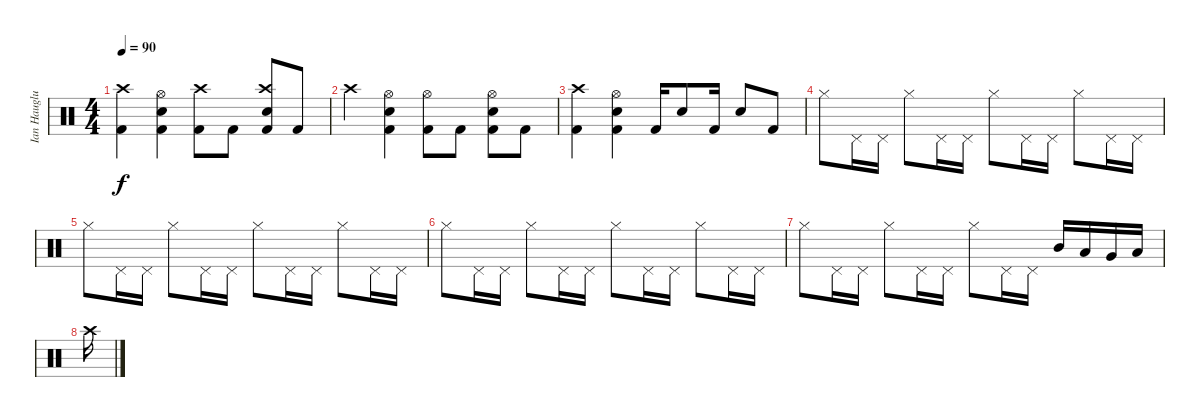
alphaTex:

\track ("Ian Hauglund" "Ian Hauglu") {instrument percussion}
\staff {score}
\articulation defaults
\ts (4 4)
\tempo 90
\clef neutral
\ks c
("Kick (hit) 2" "Crash high (hit)").4{dy f} ("Kick (hit) 2" "Electric Snare (hit)" "Hi-Hat (open)").4 ("Kick (hit) 2" "Crash high (hit)").8 "Kick (hit) 2".8 ("Kick (hit) 2" "Electric Snare (hit)" "Crash high (hit)").8 "Kick (hit) 2".8 |
"Crash high (hit)".4 ("Kick (hit) 2" "Electric Snare (hit)" "Hi-Hat (open)").4 ("Kick (hit) 2" "Hi-Hat (open)").8 "Kick (hit) 2".8 ("Kick (hit) 2" "Hi-Hat (open)" "Electric Snare (hit)").8 "Kick (hit) 2".8 |
("Kick (hit) 2" "Crash high (hit)").4 ("Kick (hit) 2" "Electric Snare (hit)" "Hi-Hat (open)").4 "Kick (hit) 2".16 "Electric Snare (hit)".8 "Kick (hit) 2".16 "Electric Snare (hit)".8 "Kick (hit) 2".8 |
"Hi-Hat (closed)".8 "Pedal Hi-Hat (hit)".16 "Pedal Hi-Hat (hit)".16 "Hi-Hat (closed)".8 "Pedal Hi-Hat (hit)".16 "Pedal Hi-Hat (hit)".16 "Hi-Hat (closed)".8 "Pedal Hi-Hat (hit)".16 "Pedal Hi-Hat (hit)".16 "Hi-Hat (closed)".8 "Pedal Hi-Hat (hit)".16 "Pedal Hi-Hat (hit)".16 |
"Hi-Hat (closed)".8 "Pedal Hi-Hat (hit)".16 "Pedal Hi-Hat (hit)".16 "Hi-Hat (closed)".8 "Pedal Hi-Hat (hit)".16 "Pedal Hi-Hat (hit)".16 "Hi-Hat (closed)".8 "Pedal Hi-Hat (hit)".16 "Pedal Hi-Hat (hit)".16 "Hi-Hat (closed)".8 "Pedal Hi-Hat (hit)".16 "Pedal Hi-Hat (hit)".16 |
"Hi-Hat (closed)".8 "Pedal Hi-Hat (hit)".16 "Pedal Hi-Hat (hit)".16 "Hi-Hat (closed)".8 "Pedal Hi-Hat (hit)".16 "Pedal Hi-Hat (hit)".16 "Hi-Hat (closed)".8 "Pedal Hi-Hat (hit)".16 "Pedal Hi-Hat (hit)".16 "Hi-Hat (closed)".8 "Pedal Hi-Hat (hit)".16 "Pedal Hi-Hat (hit)".16 |
"Hi-Hat (closed)".8 "Pedal Hi-Hat (hit)".16 "Pedal Hi-Hat (hit)".16 "Hi-Hat (closed)".8 "Pedal Hi-Hat (hit)".16 "Pedal Hi-Hat (hit)".16 "Hi-Hat (closed)".8 "Pedal Hi-Hat (hit)".16 "Pedal Hi-Hat (hit)".16 "Mid Tom (hit)".16 "Low Tom (hit)".16 "Very Low Tom (hit)".16 "Low Floor Tom (hit)".16 |
"Crash high (hit)".16
